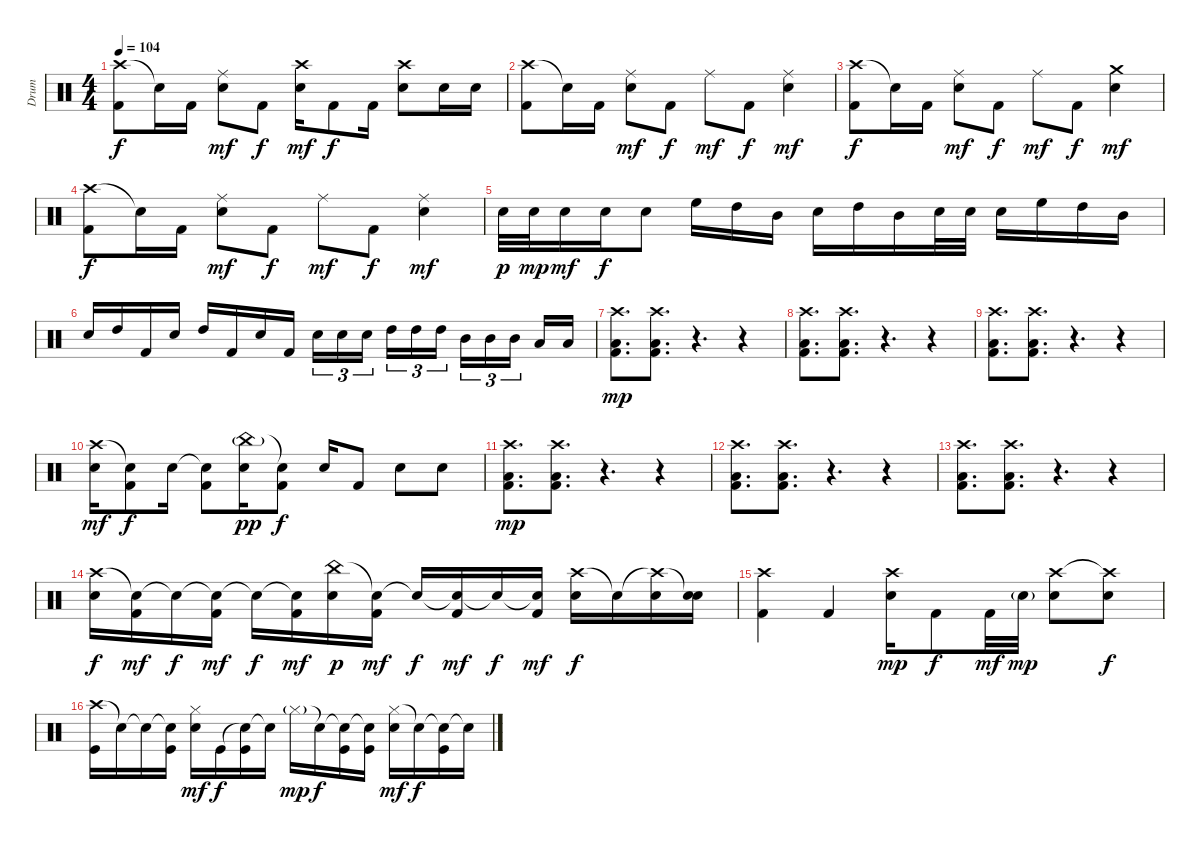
\track ("Drum" "Drum") {instrument percussion}
\staff {score}
\articulation defaults
\ts (4 4)
\tempo 104
\clef neutral
\ks c
("Crash high (hit)" "Kick (hit) 2").8{dy f} "Snare (hit)"{t}.16 "Kick (hit) 2".16 ("Ride (middle)" "Snare (hit) 2").8{dy mf} "Kick (hit) 2".8{dy f} ("Crash high (hit)" "Snare (hit) 2").16{dy mf} "Kick (hit) 2".8{dy f} "Kick (hit) 2".16 ("Crash high (hit)" "Snare (hit) 2").8 "Snare (hit) 2".16 "Snare (hit) 2".16 |
("Crash high (hit)" "Kick (hit) 2").8 "Snare (hit)"{t}.16 "Kick (hit) 2".16 ("Ride (middle)" "Snare (hit) 2").8{dy mf} "Kick (hit) 2".8{dy f} "Ride (middle)".8{dy mf} "Kick (hit) 2".8{dy f} ("Ride (middle)" "Snare (hit) 2").4{dy mf} |
("Crash high (hit)" "Kick (hit) 2").8{dy f} "Snare (hit)"{t}.16 "Kick (hit) 2".16 ("Ride (middle)" "Snare (hit) 2").8{dy mf} "Kick (hit) 2".8{dy f} "Ride (middle)".8{dy mf} "Kick (hit) 2".8{dy f} ("Crash medium (hit)" "Snare (hit) 2").4{dy mf} |
("Crash high (hit)" "Kick (hit) 2").8{dy f} "Snare (hit)"{t}.16 "Kick (hit) 2".16 ("Ride (middle)" "Snare (hit) 2").8{dy mf} "Kick (hit) 2".8{dy f} "Ride (middle)".8{dy mf} "Kick (hit) 2".8{dy f} ("Ride (middle)" "Snare (hit) 2").4{dy mf} |
"Snare (hit) 2".32{dy p} "Snare (hit) 2".32{dy mp} "Snare (hit) 2".16{dy mf} "Snare (hit) 2".16{dy f} "Snare (hit) 2".8 "High Floor Tom (hit)".16 "High Tom (hit)".16 "Mid Tom (hit)".16 "Snare (hit) 2".16 "High Tom (hit)".16 "Mid Tom (hit)".16 "Snare (hit) 2".32 "Snare (hit) 2".32 "Snare (hit) 2".16 "High Floor Tom (hit)".16 "High Tom (hit)".16 "Mid Tom (hit)".16 |
"Snare (hit) 2".16 "High Tom (hit)".16 "Kick (hit) 2".16 "Snare (hit) 2".16 "High Tom (hit)".16 "Kick (hit) 2".16 "Snare (hit) 2".16 "Kick (hit) 2".16 "Snare (hit) 2".16{tu (3 2)} "Snare (hit) 2".16{tu (3 2)} "Snare (hit) 2".16{tu (3 2) beam splitsecondary} "High Tom (hit)".16{tu (3 2)} "High Tom (hit)".16{tu (3 2)} "High Tom (hit)".16{tu (3 2)} "Mid Tom (hit)".16{tu (3 2)} "Mid Tom (hit)".16{tu (3 2)} "Mid Tom (hit)".16{tu (3 2) beam splitsecondary} "Low Tom (hit)".16 "Low Tom (hit)".16 |
("Crash high (hit)" "Low Tom (hit)" "Kick (hit) 2").8{d dy mp} ("Crash high (hit)" "Low Tom (hit)" "Kick (hit) 2").8{d} r.4{d} r.4 |
("Crash high (hit)" "Low Tom (hit)" "Kick (hit) 2").8{d} ("Crash high (hit)" "Low Tom (hit)" "Kick (hit) 2").8{d} r.4{d} r.4 |
("Crash high (hit)" "Low Tom (hit)" "Kick (hit) 2").8{d} ("Crash high (hit)" "Low Tom (hit)" "Kick (hit) 2").8{d} r.4{d} r.4 |
("Crash high (hit)" "Snare (hit) 2").16{dy mf} ("Snare (hit)"{t} "Kick (hit) 2").8{dy f} "Snare (hit) 2".16 ("Snare (hit)"{t} "Kick (hit) 2").8 ("China (hit)"{g} "Snare (hit) 2").16{dy pp} ("Snare (hit)"{t} "Kick (hit) 2").8{dy f} "Snare (hit) 2".16 "Kick (hit) 2".8 "Snare (hit) 2".8 "Snare (hit) 2".8 |
("Crash high (hit)" "Low Tom (hit)" "Kick (hit) 2").8{d dy mp} ("Crash high (hit)" "Low Tom (hit)" "Kick (hit) 2").8{d} r.4{d} r.4 |
("Crash high (hit)" "Low Tom (hit)" "Kick (hit) 2").8{d} ("Crash high (hit)" "Low Tom (hit)" "Kick (hit) 2").8{d} r.4{d} r.4 |
("Crash high (hit)" "Low Tom (hit)" "Kick (hit) 2").8{d} ("Crash high (hit)" "Low Tom (hit)" "Kick (hit) 2").8{d} r.4{d} r.4 |
("Crash high (hit)" "Snare (hit) 2").16{dy f} ("Snare (hit)"{t} "Kick (hit) 2").16{dy mf} "Snare (hit)"{t}.16{dy f} ("Snare (hit)"{t} "Kick (hit) 2").16{dy mf} "Snare (hit)"{t}.16{dy f} ("Snare (hit)"{t} "Kick (hit) 2").16{dy mf} ("China (hit)" "Snare (hit) 2").16{dy p} ("Snare (hit)"{t} "Kick (hit) 2").16{dy mf} "Snare (hit)"{t}.16{dy f} ("Snare (hit)"{t} "Kick (hit) 2").16{dy mf} "Snare (hit)"{t}.16{dy f} ("Snare (hit)"{t} "Kick (hit) 2").16{dy mf} ("Crash high (hit)" "Snare (hit) 2").16{dy f} "Snare (hit)"{t}.16 ("Crash high (hit)"{t} "Snare (hit) 2").16 ("Snare (hit)"{t} "Snare (hit) 2").16 |
("Crash high (hit)" "Kick (hit) 2").4 "Kick (hit) 2".4 ("Crash high (hit)" "Snare (hit) 2").16{dy mp} "Kick (hit) 2".8{dy f} "Kick (hit) 2".32{dy mf} "Snare (hit) 2"{g}.32{dy mp} ("Crash high (hit)" "Snare (hit) 2").8 ("Crash high (hit)"{t} "Snare (hit) 2").8{dy f} |
("Crash high (hit)" "Kick (hit)").16 "Snare (hit)"{t}.16 "Snare (hit)"{t}.16 ("Snare (hit)"{t} "Kick (hit)").16 ("Hi-Hat (closed)" "Snare (hit) 2").16{dy mf} "Kick (hit)".16{dy f} ("Snare (hit)"{t} "Kick (hit)").16 "Snare (hit)"{t}.16 "Hi-Hat (closed)"{g}.16{dy mp} "Snare (hit)"{t}.16{dy f} ("Snare (hit)"{t} "Kick (hit)").16 ("Snare (hit)"{t} "Kick (hit)").16 ("Hi-Hat (closed)" "Snare (hit) 2").16{dy mf} "Snare (hit)"{t}.16{dy f} ("Snare (hit)"{t} "Kick (hit)").16 "Snare (hit)"{t}.16
